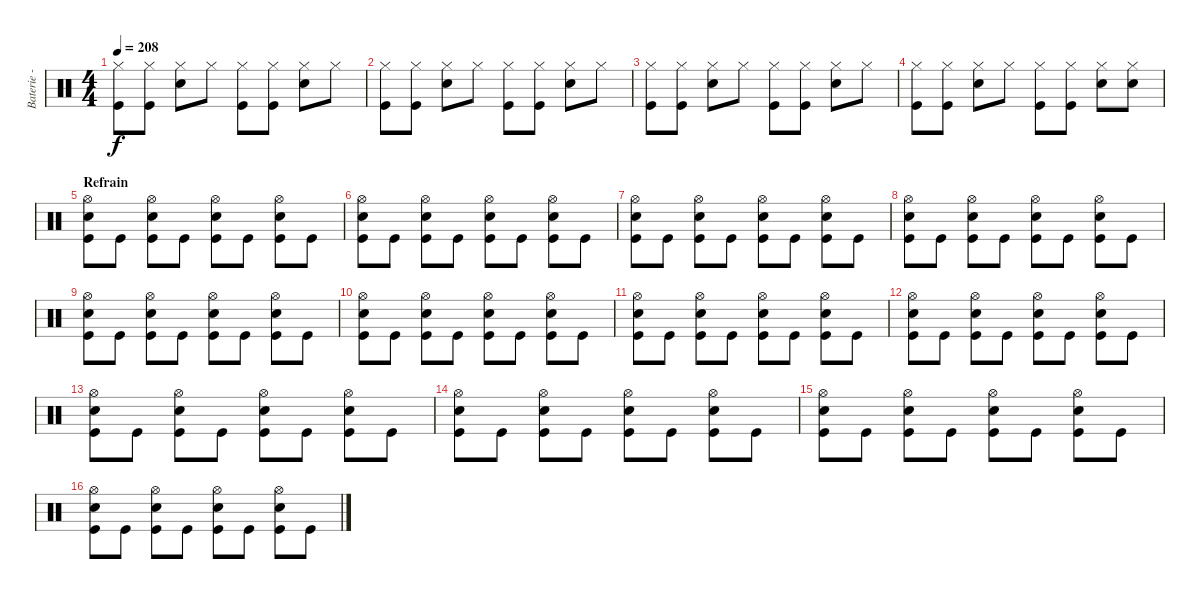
\track ("Baterie - Guillaume" "Baterie - ") {instrument percussion}
\staff {score}
\articulation defaults
\ts (4 4)
\tempo 208
\clef neutral
\ks c
("Hi-Hat (closed)" "Kick (hit)").8{dy f} ("Hi-Hat (closed)" "Kick (hit)").8 ("Hi-Hat (closed)" "Electric Snare (hit)").8 "Hi-Hat (closed)".8 ("Hi-Hat (closed)" "Kick (hit)").8 ("Hi-Hat (closed)" "Kick (hit)").8 ("Hi-Hat (closed)" "Electric Snare (hit)").8 "Hi-Hat (closed)".8 |
("Hi-Hat (closed)" "Kick (hit)").8 ("Hi-Hat (closed)" "Kick (hit)").8 ("Hi-Hat (closed)" "Electric Snare (hit)").8 "Hi-Hat (closed)".8 ("Hi-Hat (closed)" "Kick (hit)").8 ("Hi-Hat (closed)" "Kick (hit)").8 ("Hi-Hat (closed)" "Electric Snare (hit)").8 "Hi-Hat (closed)".8 |
("Hi-Hat (closed)" "Kick (hit)").8 ("Hi-Hat (closed)" "Kick (hit)").8 ("Hi-Hat (closed)" "Electric Snare (hit)").8 "Hi-Hat (closed)".8 ("Hi-Hat (closed)" "Kick (hit)").8 ("Hi-Hat (closed)" "Kick (hit)").8 ("Hi-Hat (closed)" "Electric Snare (hit)").8 "Hi-Hat (closed)".8 |
("Hi-Hat (closed)" "Kick (hit)").8 ("Hi-Hat (closed)" "Kick (hit)").8 ("Hi-Hat (closed)" "Electric Snare (hit)").8 "Hi-Hat (closed)".8 ("Hi-Hat (closed)" "Kick (hit)").8 ("Hi-Hat (closed)" "Kick (hit)").8 ("Hi-Hat (closed)" "Electric Snare (hit)").8 ("Hi-Hat (closed)" "Electric Snare (hit)").8 |
\section ("" "Refrain")
("Hi-Hat (open)" "Electric Snare (hit)" "Kick (hit)").8 "Kick (hit)".8 ("Hi-Hat (open)" "Electric Snare (hit)" "Kick (hit)").8 "Kick (hit)".8 ("Hi-Hat (open)" "Electric Snare (hit)" "Kick (hit)").8 "Kick (hit)".8 ("Hi-Hat (open)" "Electric Snare (hit)" "Kick (hit)").8 "Kick (hit)".8 |
("Hi-Hat (open)" "Electric Snare (hit)" "Kick (hit)").8 "Kick (hit)".8 ("Hi-Hat (open)" "Electric Snare (hit)" "Kick (hit)").8 "Kick (hit)".8 ("Hi-Hat (open)" "Electric Snare (hit)" "Kick (hit)").8 "Kick (hit)".8 ("Hi-Hat (open)" "Electric Snare (hit)" "Kick (hit)").8 "Kick (hit)".8 |
("Hi-Hat (open)" "Electric Snare (hit)" "Kick (hit)").8 "Kick (hit)".8 ("Hi-Hat (open)" "Electric Snare (hit)" "Kick (hit)").8 "Kick (hit)".8 ("Hi-Hat (open)" "Electric Snare (hit)" "Kick (hit)").8 "Kick (hit)".8 ("Hi-Hat (open)" "Electric Snare (hit)" "Kick (hit)").8 "Kick (hit)".8 |
("Hi-Hat (open)" "Electric Snare (hit)" "Kick (hit)").8 "Kick (hit)".8 ("Hi-Hat (open)" "Electric Snare (hit)" "Kick (hit)").8 "Kick (hit)".8 ("Hi-Hat (open)" "Electric Snare (hit)" "Kick (hit)").8 "Kick (hit)".8 ("Hi-Hat (open)" "Electric Snare (hit)" "Kick (hit)").8 "Kick (hit)".8 |
("Hi-Hat (open)" "Electric Snare (hit)" "Kick (hit)").8 "Kick (hit)".8 ("Hi-Hat (open)" "Electric Snare (hit)" "Kick (hit)").8 "Kick (hit)".8 ("Hi-Hat (open)" "Electric Snare (hit)" "Kick (hit)").8 "Kick (hit)".8 ("Hi-Hat (open)" "Electric Snare (hit)" "Kick (hit)").8 "Kick (hit)".8 |
("Hi-Hat (open)" "Electric Snare (hit)" "Kick (hit)").8 "Kick (hit)".8 ("Hi-Hat (open)" "Electric Snare (hit)" "Kick (hit)").8 "Kick (hit)".8 ("Hi-Hat (open)" "Electric Snare (hit)" "Kick (hit)").8 "Kick (hit)".8 ("Hi-Hat (open)" "Electric Snare (hit)" "Kick (hit)").8 "Kick (hit)".8 |
("Hi-Hat (open)" "Electric Snare (hit)" "Kick (hit)").8 "Kick (hit)".8 ("Hi-Hat (open)" "Electric Snare (hit)" "Kick (hit)").8 "Kick (hit)".8 ("Hi-Hat (open)" "Electric Snare (hit)" "Kick (hit)").8 "Kick (hit)".8 ("Hi-Hat (open)" "Electric Snare (hit)" "Kick (hit)").8 "Kick (hit)".8 |
("Hi-Hat (open)" "Electric Snare (hit)" "Kick (hit)").8 "Kick (hit)".8 ("Hi-Hat (open)" "Electric Snare (hit)" "Kick (hit)").8 "Kick (hit)".8 ("Hi-Hat (open)" "Electric Snare (hit)" "Kick (hit)").8 "Kick (hit)".8 ("Hi-Hat (open)" "Electric Snare (hit)" "Kick (hit)").8 "Kick (hit)".8 |
("Hi-Hat (open)" "Electric Snare (hit)" "Kick (hit)").8 "Kick (hit)".8 ("Hi-Hat (open)" "Electric Snare (hit)" "Kick (hit)").8 "Kick (hit)".8 ("Hi-Hat (open)" "Electric Snare (hit)" "Kick (hit)").8 "Kick (hit)".8 ("Hi-Hat (open)" "Electric Snare (hit)" "Kick (hit)").8 "Kick (hit)".8 |
("Hi-Hat (open)" "Electric Snare (hit)" "Kick (hit)").8 "Kick (hit)".8 ("Hi-Hat (open)" "Electric Snare (hit)" "Kick (hit)").8 "Kick (hit)".8 ("Hi-Hat (open)" "Electric Snare (hit)" "Kick (hit)").8 "Kick (hit)".8 ("Hi-Hat (open)" "Electric Snare (hit)" "Kick (hit)").8 "Kick (hit)".8 |
("Hi-Hat (open)" "Electric Snare (hit)" "Kick (hit)").8 "Kick (hit)".8 ("Hi-Hat (open)" "Electric Snare (hit)" "Kick (hit)").8 "Kick (hit)".8 ("Hi-Hat (open)" "Electric Snare (hit)" "Kick (hit)").8 "Kick (hit)".8 ("Hi-Hat (open)" "Electric Snare (hit)" "Kick (hit)").8 "Kick (hit)".8 |
("Hi-Hat (open)" "Electric Snare (hit)" "Kick (hit)").8 "Kick (hit)".8 ("Hi-Hat (open)" "Electric Snare (hit)" "Kick (hit)").8 "Kick (hit)".8 ("Hi-Hat (open)" "Electric Snare (hit)" "Kick (hit)").8 "Kick (hit)".8 ("Hi-Hat (open)" "Electric Snare (hit)" "Kick (hit)").8 "Kick (hit)".8
